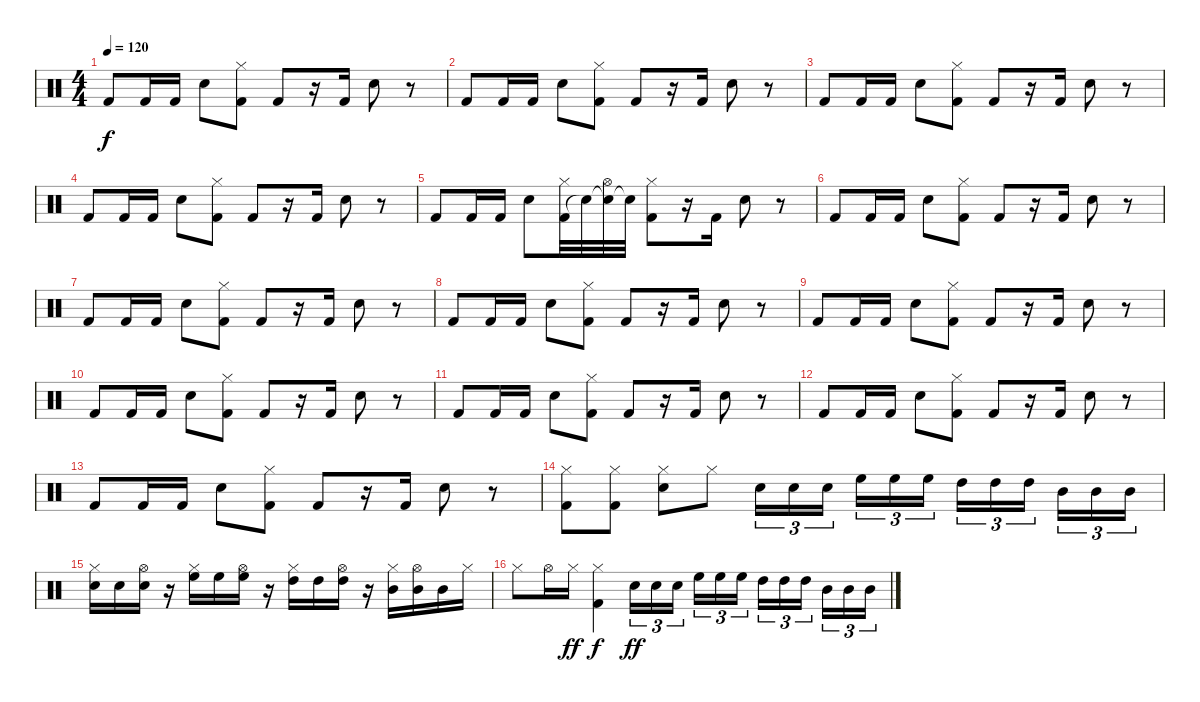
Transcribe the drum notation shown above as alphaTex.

\track "" {instrument percussion}
\staff {score}
\articulation defaults
\ts (4 4)
\tempo 120
\clef neutral
\ks c "Kick (hit) 2".8{dy f} "Kick (hit) 2".16 "Kick (hit) 2".16 "Electric Snare (hit)".8
("Kick (hit) 2" "Hi-Hat (closed)").8 "Kick (hit) 2".8 r.16 "Kick (hit) 2".16 "Electric Snare (hit)".8 r.8 |
"Kick (hit) 2".8 "Kick (hit) 2".16 "Kick (hit) 2".16 "Electric Snare (hit)".8 ("Kick (hit) 2" "Hi-Hat (closed)").8 "Kick (hit) 2".8 r.16 "Kick (hit) 2".16 "Electric Snare (hit)".8 r.8 |
"Kick (hit) 2".8 "Kick (hit) 2".16 "Kick (hit) 2".16 "Electric Snare (hit)".8 ("Kick (hit) 2" "Hi-Hat (closed)").8 "Kick (hit) 2".8 r.16 "Kick (hit) 2".16 "Electric Snare (hit)".8 r.8 |
"Kick (hit) 2".8 "Kick (hit) 2".16 "Kick (hit) 2".16 "Electric Snare (hit)".8 ("Kick (hit) 2" "Hi-Hat (closed)").8 "Kick (hit) 2".8 r.16 "Kick (hit) 2".16 "Electric Snare (hit)".8 r.8 |
"Kick (hit) 2".8 "Kick (hit) 2".16 "Kick (hit) 2".16 "Electric Snare (hit)".8 ("Kick (hit) 2" "Hi-Hat (closed)").32 "Snare (hit)"{t}.32 ("Snare (hit)"{t} "Hi-Hat (open)").32 "Snare (hit)"{t}.32 ("Kick (hit) 2" "Hi-Hat (closed)").8 r.16 "Kick (hit) 2".16 "Electric Snare (hit)".8 r.8 |
"Kick (hit) 2".8 "Kick (hit) 2".16 "Kick (hit) 2".16 "Electric Snare (hit)".8 ("Kick (hit) 2" "Hi-Hat (closed)").8 "Kick (hit) 2".8 r.16 "Kick (hit) 2".16 "Electric Snare (hit)".8 r.8 |
"Kick (hit) 2".8 "Kick (hit) 2".16 "Kick (hit) 2".16 "Electric Snare (hit)".8 ("Kick (hit) 2" "Hi-Hat (closed)").8 "Kick (hit) 2".8 r.16 "Kick (hit) 2".16 "Electric Snare (hit)".8 r.8 |
"Kick (hit) 2".8 "Kick (hit) 2".16 "Kick (hit) 2".16 "Electric Snare (hit)".8 ("Kick (hit) 2" "Hi-Hat (closed)").8 "Kick (hit) 2".8 r.16 "Kick (hit) 2".16 "Electric Snare (hit)".8 r.8 |
"Kick (hit) 2".8 "Kick (hit) 2".16 "Kick (hit) 2".16 "Electric Snare (hit)".8 ("Kick (hit) 2" "Hi-Hat (closed)").8 "Kick (hit) 2".8 r.16 "Kick (hit) 2".16 "Electric Snare (hit)".8 r.8 |
"Kick (hit) 2".8 "Kick (hit) 2".16 "Kick (hit) 2".16 "Electric Snare (hit)".8 ("Kick (hit) 2" "Hi-Hat (closed)").8 "Kick (hit) 2".8 r.16 "Kick (hit) 2".16 "Electric Snare (hit)".8 r.8 |
"Kick (hit) 2".8 "Kick (hit) 2".16 "Kick (hit) 2".16 "Electric Snare (hit)".8 ("Kick (hit) 2" "Hi-Hat (closed)").8 "Kick (hit) 2".8 r.16 "Kick (hit) 2".16 "Electric Snare (hit)".8 r.8 |
"Kick (hit) 2".8 "Kick (hit) 2".16 "Kick (hit) 2".16 "Electric Snare (hit)".8 ("Kick (hit) 2" "Hi-Hat (closed)").8 "Kick (hit) 2".8 r.16 "Kick (hit) 2".16 "Electric Snare (hit)".8 r.8 |
"Kick (hit) 2".8 "Kick (hit) 2".16 "Kick (hit) 2".16 "Electric Snare (hit)".8 ("Kick (hit) 2" "Hi-Hat (closed)").8 "Kick (hit) 2".8 r.16 "Kick (hit) 2".16 "Electric Snare (hit)".8 r.8 |
("Hi-Hat (closed)" "Kick (hit) 2").8 ("Hi-Hat (closed)" "Kick (hit) 2").8 ("Hi-Hat (closed)" "Snare (hit) 2").8 "Hi-Hat (closed)".8 "Snare (hit) 2".16{tu (3 2)} "Snare (hit) 2".16{tu (3 2)} "Snare (hit) 2".16{tu (3 2)} "High Floor Tom (hit)".16{tu (3 2)} "High Floor Tom (hit)".16{tu (3 2)} "High Floor Tom (hit)".16{tu (3 2)} "High Tom (hit)".16{tu (3 2)} "High Tom (hit)".16{tu (3 2)} "High Tom (hit)".16{tu (3 2)} "Mid Tom (hit)".16{tu (3 2)} "Mid Tom (hit)".16{tu (3 2)} "Mid Tom (hit)".16{tu (3 2)} |
("Hi-Hat (closed)" "Snare (hit) 2").16 "Snare (hit) 2".16 ("Hi-Hat (open)" "Snare (hit) 2").16 r.16 ("Hi-Hat (closed)" "High Floor Tom (hit)").16 "High Floor Tom (hit)".16 ("Hi-Hat (open)" "High Floor Tom (hit)").16 r.16 ("Hi-Hat (closed)" "High Tom (hit)").16 "High Tom (hit)".16 ("Hi-Hat (open)" "High Tom (hit)").16 r.16 ("Hi-Hat (closed)" "Mid Tom (hit)").16 ("Hi-Hat (open)" "Mid Tom (hit)").16 "Mid Tom (hit)".16 "Hi-Hat (closed)".16 |
"Hi-Hat (closed)".8 "Hi-Hat (open)".16 "Hi-Hat (closed)".16{dy ff} ("Hi-Hat (closed)" "Kick (hit) 2").4{dy f} "Snare (hit) 2".16{tu (3 2) dy ff} "Snare (hit) 2".16{tu (3 2)} "Snare (hit) 2".16{tu (3 2)} "High Floor Tom (hit)".16{tu (3 2)} "High Floor Tom (hit)".16{tu (3 2)} "High Floor Tom (hit)".16{tu (3 2)} "High Tom (hit)".16{tu (3 2)} "High Tom (hit)".16{tu (3 2)} "High Tom (hit)".16{tu (3 2)} "Mid Tom (hit)".16{tu (3 2)} "Mid Tom (hit)".16{tu (3 2)} "Mid Tom (hit)".16{tu (3 2)}
